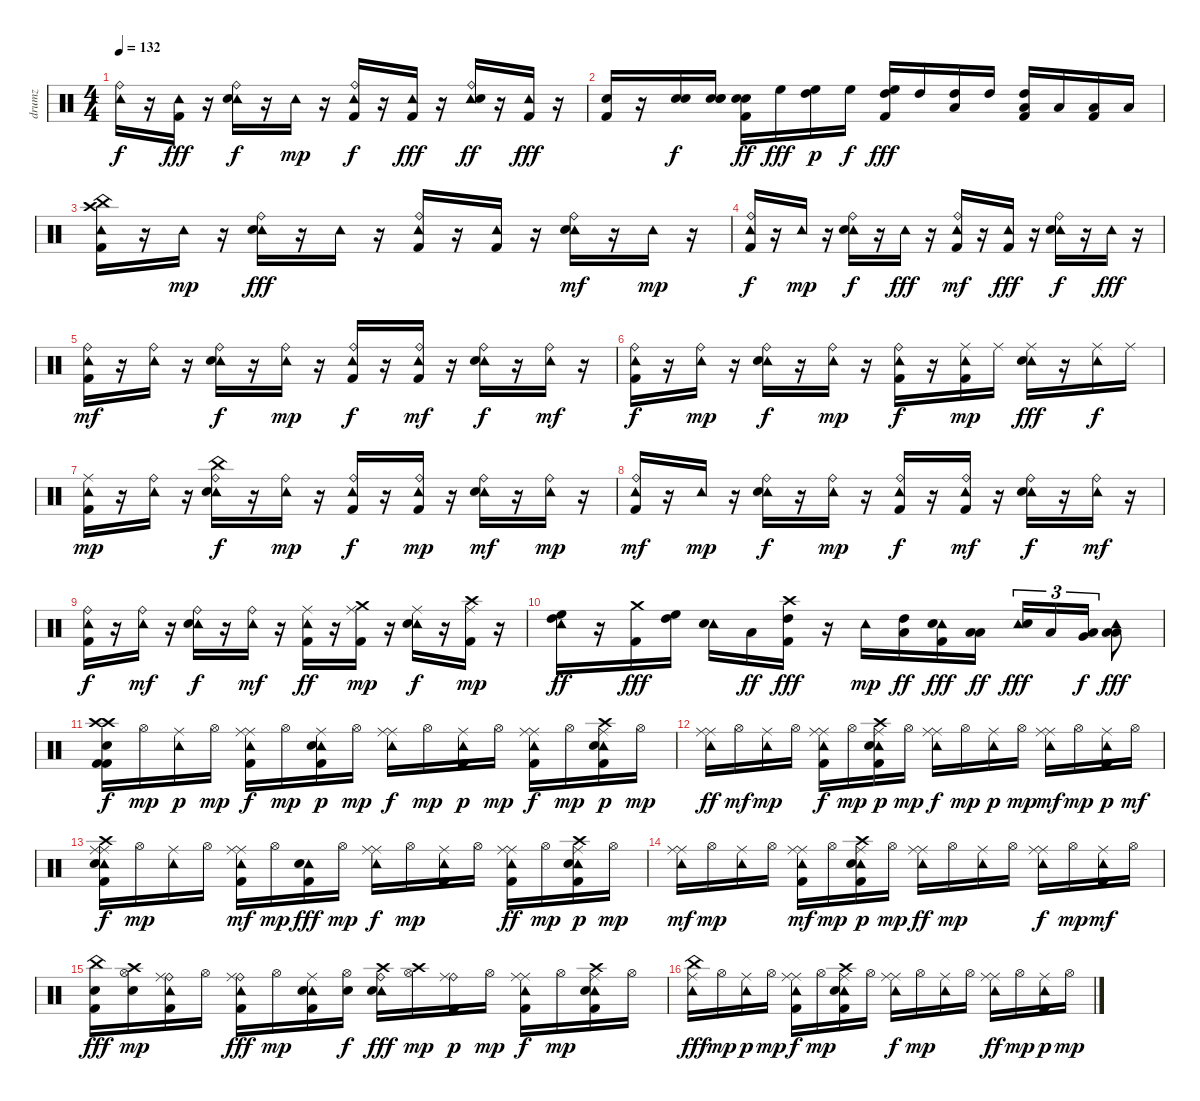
\track ("drumz" "drumz") {instrument percussion}
\staff {score}
\articulation defaults
\ts (4 4)
\tempo 132
\clef neutral
\ks c
("Tambourine (hit)" "Ride (bell)").16{dy f} r.16 ("Tambourine (hit)" "Kick (hit) 2").16{dy fff} r.16 ("Tambourine (hit)" "Snare (hit) 2" "Ride (bell)").16{dy f} r.16 "Tambourine (hit)".16{dy mp} r.16 ("Tambourine (hit)" "Kick (hit) 2" "Ride (bell)").16{dy f} r.16 ("Tambourine (hit)" "Kick (hit) 2").16{dy fff} r.16 ("Tambourine (hit)" "Snare (hit) 2" "Ride (bell)").16{dy ff} r.16 ("Tambourine (hit)" "Kick (hit) 2").16{dy fff} r.16 |
("Snare (hit) 2" "Kick (hit) 2").16 r.16 ("Snare (hit) 2" "Snare (hit) 2").16{dy f} ("Snare (hit) 2" "Snare (hit) 2" "Snare (hit) 2").16 ("Snare (hit) 2" "Kick (hit) 2" "Snare (hit) 2").16{dy ff} "High Floor Tom (hit)".16{dy fff} ("High Tom (hit)" "High Floor Tom (hit)").16{dy p} "High Floor Tom (hit)".16{dy f} ("High Tom (hit)" "Kick (hit) 2" "High Floor Tom (hit)").16{dy fff} "High Tom (hit)".16 ("High Tom (hit)" "Low Tom (hit)").16 "High Tom (hit)".16 ("High Tom (hit)" "Low Tom (hit)" "Kick (hit) 2").16 "Low Tom (hit)".16 ("Low Floor Tom (hit)" "Kick (hit) 2").16 "Low Floor Tom (hit)".16 |
("Tambourine (hit)" "Crash high (hit)" "Kick (hit) 2" "China (hit)").16 r.16 "Tambourine (hit)".16{dy mp} r.16 ("Tambourine (hit)" "Snare (hit) 2" "Ride (bell)").16{dy fff} r.16 "Tambourine (hit)".16 r.16 ("Tambourine (hit)" "Kick (hit) 2" "Ride (bell)").16 r.16 ("Tambourine (hit)" "Kick (hit) 2").16 r.16 ("Tambourine (hit)" "Snare (hit) 2" "Ride (bell)").16{dy mf} r.16 "Tambourine (hit)".16{dy mp} r.16 |
("Tambourine (hit)" "Kick (hit) 2" "Ride (bell)").16{dy f} r.16 "Tambourine (hit)".16{dy mp} r.16 ("Tambourine (hit)" "Snare (hit) 2" "Ride (bell)").16{dy f} r.16 "Tambourine (hit)".16{dy fff} r.16 ("Tambourine (hit)" "Kick (hit) 2" "Ride (bell)").16{dy mf} r.16 ("Tambourine (hit)" "Kick (hit) 2").16{dy fff} r.16 ("Tambourine (hit)" "Snare (hit) 2" "Ride (bell)").16{dy f} r.16 "Tambourine (hit)".16{dy fff} r.16 |
("Tambourine (hit)" "Kick (hit) 2" "Ride (bell)").16{dy mf} r.16 ("Tambourine (hit)" "Ride (bell)").16 r.16 ("Tambourine (hit)" "Snare (hit) 2" "Ride (bell)").16{dy f} r.16 ("Tambourine (hit)" "Ride (bell)").16{dy mp} r.16 ("Tambourine (hit)" "Kick (hit) 2" "Ride (bell)").16{dy f} r.16 ("Tambourine (hit)" "Kick (hit) 2" "Ride (bell)").16{dy mf} r.16 ("Tambourine (hit)" "Snare (hit) 2" "Ride (bell)").16{dy f} r.16 ("Tambourine (hit)" "Ride (bell)").16{dy mf} r.16 |
("Tambourine (hit)" "Kick (hit) 2" "Ride (bell)").16{dy f} r.16 ("Tambourine (hit)" "Ride (bell)").16{dy mp} r.16 ("Tambourine (hit)" "Snare (hit) 2" "Ride (bell)").16{dy f} r.16 ("Tambourine (hit)" "Ride (bell)").16{dy mp} r.16 ("Tambourine (hit)" "Kick (hit) 2" "Ride (bell)").16{dy f} r.16 ("Tambourine (hit)" "Kick (hit) 2" "Ride (middle)").16{dy mp} "Ride (middle)".16 ("Ride (middle)" "Tambourine (hit)" "Snare (hit) 2").16{dy fff} r.16 ("Tambourine (hit)" "Ride (middle)").16{dy f} "Ride (middle)".16 |
("Tambourine (hit)" "Kick (hit) 2" "Ride (middle)").16{dy mp} r.16 ("Tambourine (hit)" "Ride (bell)").16 r.16 ("Tambourine (hit)" "Snare (hit) 2" "China (hit)" "Ride (bell)").16{dy f} r.16 ("Tambourine (hit)" "Ride (bell)").16{dy mp} r.16 ("Tambourine (hit)" "Kick (hit) 2" "Ride (bell)").16{dy f} r.16 ("Tambourine (hit)" "Kick (hit) 2" "Ride (bell)").16{dy mp} r.16 ("Tambourine (hit)" "Snare (hit) 2" "Ride (bell)").16{dy mf} r.16 ("Tambourine (hit)" "Ride (bell)").16{dy mp} r.16 |
("Tambourine (hit)" "Kick (hit) 2" "Ride (bell)").16{dy mf} r.16 "Tambourine (hit)".16{dy mp} r.16 ("Tambourine (hit)" "Snare (hit) 2" "Ride (bell)").16{dy f} r.16 ("Tambourine (hit)" "Ride (bell)").16{dy mp} r.16 ("Tambourine (hit)" "Kick (hit) 2" "Ride (bell)").16{dy f} r.16 ("Tambourine (hit)" "Kick (hit) 2" "Ride (bell)").16{dy mf} r.16 ("Tambourine (hit)" "Snare (hit) 2" "Ride (bell)").16{dy f} r.16 ("Tambourine (hit)" "Ride (bell)").16{dy mf} r.16 |
("Tambourine (hit)" "Kick (hit) 2" "Ride (bell)").16{dy f} r.16 ("Tambourine (hit)" "Ride (bell)").16{dy mf} r.16 ("Tambourine (hit)" "Snare (hit) 2" "Ride (bell)").16{dy f} r.16 ("Tambourine (hit)" "Ride (bell)").16{dy mf} r.16 ("Tambourine (hit)" "Kick (hit) 2" "Ride (middle)").16{dy ff} r.16 ("Crash medium (hit)" "Kick (hit) 2" "Ride (middle)").16{dy mp} r.16 ("Tambourine (hit)" "Snare (hit) 2" "Ride (middle)").16{dy f} r.16 ("Crash high (hit)" "Kick (hit) 2" "Ride (middle)").16{dy mp} r.16 |
("Tambourine (hit)" "High Floor Tom (hit)" "High Tom (hit)").16{dy ff} r.16 ("Crash medium (hit)" "Kick (hit) 2").16{dy fff} ("High Tom (hit)" "High Floor Tom (hit)").16 ("Tambourine (hit)" "Snare (hit) 2").16 "Low Tom (hit)".16{dy ff} ("High Tom (hit)" "Crash high (hit)" "Kick (hit) 2").16{dy fff} r.16 "Tambourine (hit)".16{dy mp} ("Low Tom (hit)" "High Tom (hit)").16{dy ff} ("Tambourine (hit)" "Snare (hit) 2" "Kick (hit) 2").16{dy fff} ("Low Floor Tom (hit)" "Low Tom (hit)").16{dy ff} ("Tambourine (hit)" "Snare (hit) 2").16{tu (3 2) dy fff} "Low Tom (hit)".16{tu (3 2)} ("Very Low Tom (hit)" "Low Tom (hit)").16{tu (3 2) dy f} ("Low Floor Tom (hit)" "Tambourine (hit)" "Low Floor Tom (hit)").8{dy fff} |
("Kick (hit) 2" "Crash high (hit)" "Snare (hit) 2" "Kick (hit) 2" "Crash high (hit)").16{dy f} "Hi-Hat (open)".16{dy mp} ("Tambourine (hit)" "Ride (middle)").16{dy p} "Hi-Hat (open)".16{dy mp} ("Tambourine (hit)" "Ride (middle)" "Kick (hit) 2" "Ride (middle)").16{dy f} "Hi-Hat (open)".16{dy mp} ("Tambourine (hit)" "Snare (hit) 2" "Kick (hit) 2" "Ride (middle)").16{dy p} "Hi-Hat (open)".16{dy mp} ("Tambourine (hit)" "Ride (middle)" "Ride (middle)").16{dy f} "Hi-Hat (open)".16{dy mp} ("Tambourine (hit)" "Kick (hit) 2" "Ride (middle)").16{dy p} "Hi-Hat (open)".16{dy mp} ("Tambourine (hit)" "Ride (middle)" "Kick (hit) 2" "Ride (middle)").16{dy f} "Hi-Hat (open)".16{dy mp} ("Tambourine (hit)" "Crash high (hit)" "Snare (hit) 2" "Kick (hit) 2" "Ride (middle)").16{dy p} "Hi-Hat (open)".16{dy mp} |
("Tambourine (hit)" "Ride (middle)" "Ride (middle)").16{dy ff} "Hi-Hat (open)".16{dy mf} ("Tambourine (hit)" "Ride (middle)").16{dy mp} "Hi-Hat (open)".16 ("Tambourine (hit)" "Ride (middle)" "Kick (hit) 2" "Ride (middle)").16{dy f} "Hi-Hat (open)".16{dy mp} ("Tambourine (hit)" "Crash high (hit)" "Snare (hit) 2" "Kick (hit) 2" "Ride (middle)").16{dy p} "Hi-Hat (open)".16{dy mp} ("Tambourine (hit)" "Ride (middle)" "Ride (middle)").16{dy f} "Hi-Hat (open)".16{dy mp} ("Tambourine (hit)" "Ride (middle)").16{dy p} "Hi-Hat (open)".16{dy mp} ("Tambourine (hit)" "Ride (middle)" "Ride (middle)").16{dy mf} "Hi-Hat (open)".16{dy mp} ("Tambourine (hit)" "Kick (hit) 2" "Ride (middle)").16{dy p} "Hi-Hat (open)".16{dy mf} |
("Tambourine (hit)" "Ride (middle)" "Crash high (hit)" "Snare (hit) 2" "Kick (hit) 2" "Ride (middle)").16{dy f} "Hi-Hat (open)".16{dy mp} ("Tambourine (hit)" "Ride (middle)").16 "Hi-Hat (open)".16 ("Tambourine (hit)" "Ride (middle)" "Kick (hit) 2" "Ride (middle)").16{dy mf} "Hi-Hat (open)".16{dy mp} ("Tambourine (hit)" "Snare (hit) 2" "Kick (hit) 2").16{dy fff} "Hi-Hat (open)".16{dy mp} ("Tambourine (hit)" "Ride (middle)" "Ride (middle)").16{dy f} "Hi-Hat (open)".16{dy mp} ("Tambourine (hit)" "Kick (hit) 2" "Ride (middle)").16 "Hi-Hat (open)".16 ("Tambourine (hit)" "Ride (middle)" "Kick (hit) 2" "Ride (middle)").16{dy ff} "Hi-Hat (open)".16{dy mp} ("Tambourine (hit)" "Crash high (hit)" "Snare (hit) 2" "Kick (hit) 2" "Ride (middle)").16{dy p} "Hi-Hat (open)".16{dy mp} |
("Tambourine (hit)" "Ride (middle)" "Ride (middle)").16{dy mf} "Hi-Hat (open)".16{dy mp} ("Tambourine (hit)" "Ride (middle)").16 "Hi-Hat (open)".16 ("Tambourine (hit)" "Ride (middle)" "Kick (hit) 2" "Ride (middle)").16{dy mf} "Hi-Hat (open)".16{dy mp} ("Tambourine (hit)" "Crash high (hit)" "Snare (hit) 2" "Kick (hit) 2" "Ride (middle)").16{dy p} "Hi-Hat (open)".16{dy mp} ("Tambourine (hit)" "Ride (middle)" "Ride (middle)").16{dy ff} "Hi-Hat (open)".16{dy mp} ("Tambourine (hit)" "Ride (middle)").16 "Hi-Hat (open)".16 ("Tambourine (hit)" "Ride (middle)" "Ride (middle)").16{dy f} "Hi-Hat (open)".16{dy mp} ("Tambourine (hit)" "Kick (hit) 2" "Ride (middle)").16{dy mf} "Hi-Hat (open)".16 |
("China (hit)" "Snare (hit) 2" "Kick (hit) 2").16{dy fff} ("Snare (hit) 2" "Crash high (hit)" "Hi-Hat (open)").16{dy mp} ("Tambourine (hit)" "Ride (bell)" "Kick (hit) 2" "Ride (middle)").16 "Hi-Hat (open)".16 ("Tambourine (hit)" "Ride (bell)" "Kick (hit) 2" "Ride (middle)").16{dy fff} "Hi-Hat (open)".16{dy mp} ("Tambourine (hit)" "Snare (hit) 2" "Kick (hit) 2" "Ride (middle)").16 ("Snare (hit) 2" "Hi-Hat (open)").16{dy f} ("Tambourine (hit)" "Ride (bell)" "Snare (hit) 2" "Crash high (hit)").16{dy fff} ("Crash high (hit)" "Hi-Hat (open)").16{dy mp} ("Ride (bell)" "Kick (hit) 2" "Ride (middle)").16{dy p} "Hi-Hat (open)".16{dy mp} ("Tambourine (hit)" "Ride (middle)" "Kick (hit) 2" "Ride (middle)").16{dy f} "Hi-Hat (open)".16{dy mp} ("Tambourine (hit)" "Crash high (hit)" "Snare (hit) 2" "Kick (hit) 2" "Ride (middle)").16 "Hi-Hat (open)".16 |
("Tambourine (hit)" "Ride (middle)" "China (hit)").16{dy fff} "Hi-Hat (open)".16{dy mp} ("Tambourine (hit)" "Ride (middle)").16{dy p} "Hi-Hat (open)".16{dy mp} ("Tambourine (hit)" "Ride (middle)" "Kick (hit) 2" "Ride (middle)").16{dy f} "Hi-Hat (open)".16{dy mp} ("Tambourine (hit)" "Crash high (hit)" "Snare (hit) 2" "Kick (hit) 2" "Ride (middle)").16 "Hi-Hat (open)".16 ("Tambourine (hit)" "Ride (middle)" "Ride (middle)").16{dy f} "Hi-Hat (open)".16{dy mp} ("Tambourine (hit)" "Ride (middle)").16 "Hi-Hat (open)".16 ("Tambourine (hit)" "Ride (middle)" "Ride (middle)").16{dy ff} "Hi-Hat (open)".16{dy mp} ("Tambourine (hit)" "Kick (hit) 2" "Ride (middle)").16{dy p} "Hi-Hat (open)".16{dy mp}
